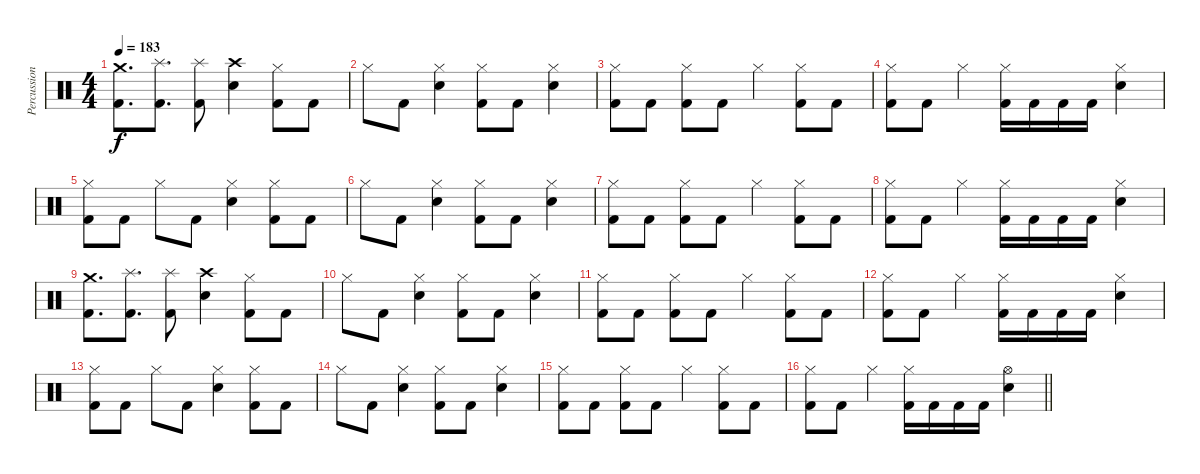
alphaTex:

\track ("Percussion" "Percussion") {instrument percussion}
\staff {score}
\articulation defaults
\ts (4 4)
\tempo 183
\clef neutral
\ks c
("Crash medium (hit)" "Kick (hit) 2").8{d dy f} ("Splash (hit)" "Kick (hit) 2").8{d} ("Splash (hit)" "Kick (hit) 2").8 ("Crash high (hit)" "Electric Snare (hit)").4 ("Hi-Hat (closed)" "Kick (hit) 2").8 "Kick (hit) 2".8 |
"Hi-Hat (closed)".8 "Kick (hit) 2".8 ("Hi-Hat (closed)" "Electric Snare (hit)").4 ("Hi-Hat (closed)" "Kick (hit) 2").8 "Kick (hit) 2".8 ("Hi-Hat (closed)" "Electric Snare (hit)").4 |
("Hi-Hat (closed)" "Kick (hit) 2").8 "Kick (hit) 2".8 ("Hi-Hat (closed)" "Kick (hit) 2").8 "Kick (hit) 2".8 "Hi-Hat (closed)".4 ("Hi-Hat (closed)" "Kick (hit) 2").8 "Kick (hit) 2".8 |
("Hi-Hat (closed)" "Kick (hit) 2").8 "Kick (hit) 2".8 "Hi-Hat (closed)".4 ("Hi-Hat (closed)" "Kick (hit) 2").16 "Kick (hit) 2".16 "Kick (hit) 2".16 "Kick (hit) 2".16 ("Hi-Hat (closed)" "Electric Snare (hit)").4 |
("Hi-Hat (closed)" "Kick (hit) 2").8 "Kick (hit) 2".8 "Hi-Hat (closed)".8 "Kick (hit) 2".8 ("Hi-Hat (closed)" "Electric Snare (hit)").4 ("Hi-Hat (closed)" "Kick (hit) 2").8 "Kick (hit) 2".8 |
"Hi-Hat (closed)".8 "Kick (hit) 2".8 ("Hi-Hat (closed)" "Electric Snare (hit)").4 ("Hi-Hat (closed)" "Kick (hit) 2").8 "Kick (hit) 2".8 ("Hi-Hat (closed)" "Electric Snare (hit)").4 |
("Hi-Hat (closed)" "Kick (hit) 2").8 "Kick (hit) 2".8 ("Hi-Hat (closed)" "Kick (hit) 2").8 "Kick (hit) 2".8 "Hi-Hat (closed)".4 ("Hi-Hat (closed)" "Kick (hit) 2").8 "Kick (hit) 2".8 |
("Hi-Hat (closed)" "Kick (hit) 2").8 "Kick (hit) 2".8 "Hi-Hat (closed)".4 ("Hi-Hat (closed)" "Kick (hit) 2").16 "Kick (hit) 2".16 "Kick (hit) 2".16 "Kick (hit) 2".16 ("Hi-Hat (closed)" "Electric Snare (hit)").4 |
("Crash medium (hit)" "Kick (hit) 2").8{d} ("Splash (hit)" "Kick (hit) 2").8{d} ("Splash (hit)" "Kick (hit) 2").8 ("Crash high (hit)" "Electric Snare (hit)").4 ("Hi-Hat (closed)" "Kick (hit) 2").8 "Kick (hit) 2".8 |
"Hi-Hat (closed)".8 "Kick (hit) 2".8 ("Hi-Hat (closed)" "Electric Snare (hit)").4 ("Hi-Hat (closed)" "Kick (hit) 2").8 "Kick (hit) 2".8 ("Hi-Hat (closed)" "Electric Snare (hit)").4 |
("Hi-Hat (closed)" "Kick (hit) 2").8 "Kick (hit) 2".8 ("Hi-Hat (closed)" "Kick (hit) 2").8 "Kick (hit) 2".8 "Hi-Hat (closed)".4 ("Hi-Hat (closed)" "Kick (hit) 2").8 "Kick (hit) 2".8 |
("Hi-Hat (closed)" "Kick (hit) 2").8 "Kick (hit) 2".8 "Hi-Hat (closed)".4 ("Hi-Hat (closed)" "Kick (hit) 2").16 "Kick (hit) 2".16 "Kick (hit) 2".16 "Kick (hit) 2".16 ("Hi-Hat (closed)" "Electric Snare (hit)").4 |
("Hi-Hat (closed)" "Kick (hit) 2").8 "Kick (hit) 2".8 "Hi-Hat (closed)".8 "Kick (hit) 2".8 ("Hi-Hat (closed)" "Electric Snare (hit)").4 ("Hi-Hat (closed)" "Kick (hit) 2").8 "Kick (hit) 2".8 |
"Hi-Hat (closed)".8 "Kick (hit) 2".8 ("Hi-Hat (closed)" "Electric Snare (hit)").4 ("Hi-Hat (closed)" "Kick (hit) 2").8 "Kick (hit) 2".8 ("Hi-Hat (closed)" "Electric Snare (hit)").4 |
("Hi-Hat (closed)" "Kick (hit) 2").8 "Kick (hit) 2".8 ("Hi-Hat (closed)" "Kick (hit) 2").8 "Kick (hit) 2".8 "Hi-Hat (closed)".4 ("Hi-Hat (closed)" "Kick (hit) 2").8 "Kick (hit) 2".8 |
\barLineRight lightlight
("Hi-Hat (closed)" "Kick (hit) 2").8 "Kick (hit) 2".8 "Hi-Hat (closed)".4 ("Hi-Hat (closed)" "Kick (hit) 2").16 "Kick (hit) 2".16 "Kick (hit) 2".16 "Kick (hit) 2".16 ("Hi-Hat (open)" "Electric Snare (hit)").4
